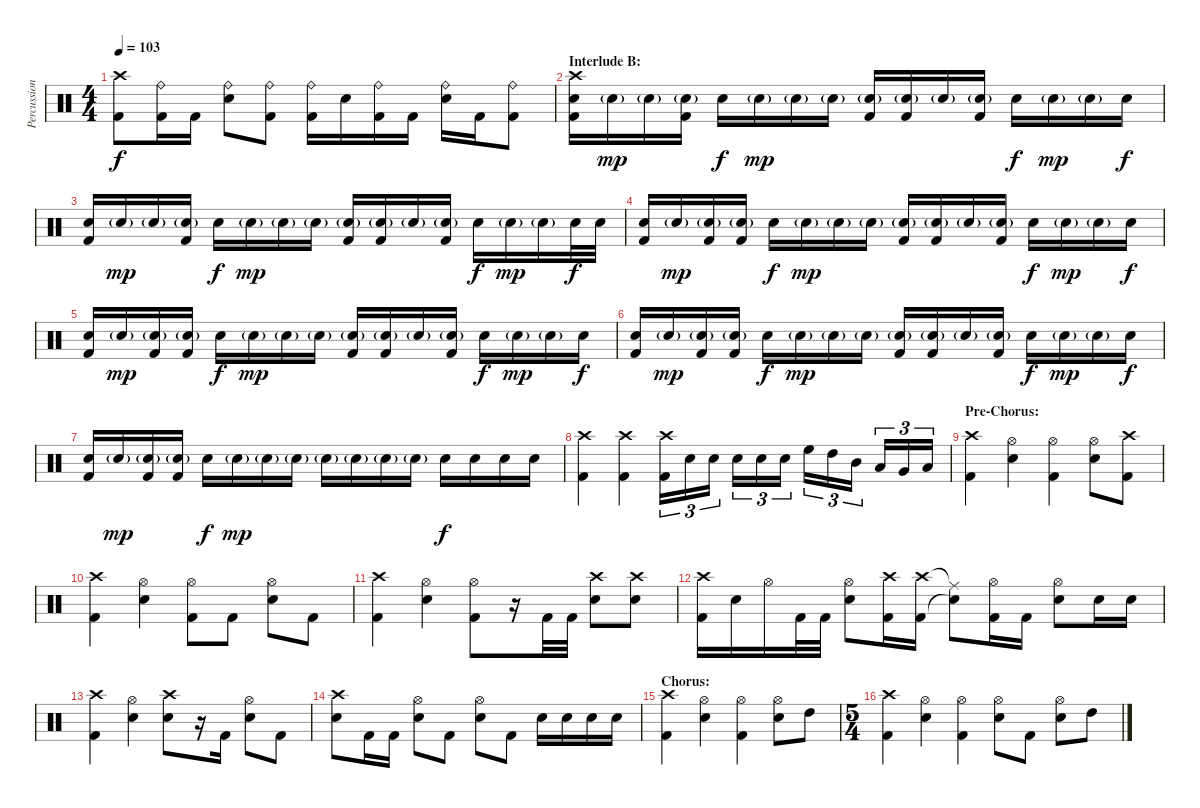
\track ("Percussion" "Percussion") {instrument percussion}
\staff {score}
\articulation defaults
\ts (4 4)
\tempo 103
\clef neutral
\ks c
("Crash high (hit)" "Kick (hit) 2").8{dy f} ("Ride (bell)" "Kick (hit) 2").16 "Kick (hit) 2".16 ("Ride (bell)" "Snare (hit) 2").8 ("Ride (bell)" "Kick (hit) 2").8 ("Ride (bell)" "Kick (hit) 2").16 "Snare (hit) 2".16 ("Ride (bell)" "Kick (hit) 2").16 "Kick (hit) 2".16 ("Ride (bell)" "Snare (hit) 2").16 "Kick (hit) 2".16 ("Ride (bell)" "Kick (hit) 2").8 |
\section ("" "Interlude B:")
("Crash high (hit)" "Snare (hit) 2" "Kick (hit) 2").16 "Snare (hit) 2"{g}.16{dy mp} "Snare (hit) 2"{g}.16 ("Snare (hit) 2"{g} "Kick (hit) 2").16 "Snare (hit) 2".16{dy f} "Snare (hit) 2"{g}.16{dy mp} "Snare (hit) 2"{g}.16 "Snare (hit) 2"{g}.16 ("Snare (hit) 2"{g} "Kick (hit) 2").16 ("Snare (hit) 2"{g} "Kick (hit) 2").16 "Snare (hit) 2"{g}.16 ("Snare (hit) 2"{g} "Kick (hit) 2").16 "Snare (hit) 2".16{dy f} "Snare (hit) 2"{g}.16{dy mp} "Snare (hit) 2"{g}.16 "Snare (hit) 2".16{dy f} |
("Snare (hit) 2" "Kick (hit) 2").16 "Snare (hit) 2"{g}.16{dy mp} "Snare (hit) 2"{g}.16 ("Snare (hit) 2"{g} "Kick (hit) 2").16 "Snare (hit) 2".16{dy f} "Snare (hit) 2"{g}.16{dy mp} "Snare (hit) 2"{g}.16 "Snare (hit) 2"{g}.16 ("Snare (hit) 2"{g} "Kick (hit) 2").16 ("Snare (hit) 2"{g} "Kick (hit) 2").16 "Snare (hit) 2"{g}.16 ("Snare (hit) 2"{g} "Kick (hit) 2").16 "Snare (hit) 2".16{dy f} "Snare (hit) 2"{g}.16{dy mp} "Snare (hit) 2"{g}.16 "Snare (hit) 2".32{dy f} "Snare (hit) 2".32 |
("Snare (hit) 2" "Kick (hit) 2").16 "Snare (hit) 2"{g}.16{dy mp} ("Snare (hit) 2"{g} "Kick (hit) 2").16 ("Snare (hit) 2"{g} "Kick (hit) 2").16 "Snare (hit) 2".16{dy f} "Snare (hit) 2"{g}.16{dy mp} "Snare (hit) 2"{g}.16 "Snare (hit) 2"{g}.16 ("Snare (hit) 2"{g} "Kick (hit) 2").16 ("Snare (hit) 2"{g} "Kick (hit) 2").16 "Snare (hit) 2"{g}.16 ("Snare (hit) 2"{g} "Kick (hit) 2").16 "Snare (hit) 2".16{dy f} "Snare (hit) 2"{g}.16{dy mp} "Snare (hit) 2"{g}.16 "Snare (hit) 2".16{dy f} |
("Snare (hit) 2" "Kick (hit) 2").16 "Snare (hit) 2"{g}.16{dy mp} ("Snare (hit) 2"{g} "Kick (hit) 2").16 ("Snare (hit) 2"{g} "Kick (hit) 2").16 "Snare (hit) 2".16{dy f} "Snare (hit) 2"{g}.16{dy mp} "Snare (hit) 2"{g}.16 "Snare (hit) 2"{g}.16 ("Snare (hit) 2"{g} "Kick (hit) 2").16 ("Snare (hit) 2"{g} "Kick (hit) 2").16 "Snare (hit) 2"{g}.16 ("Snare (hit) 2"{g} "Kick (hit) 2").16 "Snare (hit) 2".16{dy f} "Snare (hit) 2"{g}.16{dy mp} "Snare (hit) 2"{g}.16 "Snare (hit) 2".16{dy f} |
("Snare (hit) 2" "Kick (hit) 2").16 "Snare (hit) 2"{g}.16{dy mp} ("Snare (hit) 2"{g} "Kick (hit) 2").16 ("Snare (hit) 2"{g} "Kick (hit) 2").16 "Snare (hit) 2".16{dy f} "Snare (hit) 2"{g}.16{dy mp} "Snare (hit) 2"{g}.16 "Snare (hit) 2"{g}.16 ("Snare (hit) 2"{g} "Kick (hit) 2").16 ("Snare (hit) 2"{g} "Kick (hit) 2").16 "Snare (hit) 2"{g}.16 ("Snare (hit) 2"{g} "Kick (hit) 2").16 "Snare (hit) 2".16{dy f} "Snare (hit) 2"{g}.16{dy mp} "Snare (hit) 2"{g}.16 "Snare (hit) 2".16{dy f} |
("Snare (hit) 2" "Kick (hit) 2").16 "Snare (hit) 2"{g}.16{dy mp} ("Snare (hit) 2"{g} "Kick (hit) 2").16 ("Snare (hit) 2"{g} "Kick (hit) 2").16 "Snare (hit) 2".16{dy f} "Snare (hit) 2"{g}.16{dy mp} "Snare (hit) 2"{g}.16 "Snare (hit) 2"{g}.16 "Snare (hit) 2"{g}.16 "Snare (hit) 2"{g}.16 "Snare (hit) 2"{g}.16 "Snare (hit) 2"{g}.16 "Snare (hit) 2".16{dy f} "Snare (hit) 2".16 "Snare (hit) 2".16 "Snare (hit) 2".16 |
("Crash high (hit)" "Kick (hit) 2").4 ("Crash high (hit)" "Kick (hit) 2").4 ("Crash high (hit)" "Kick (hit) 2").16{tu (3 2)} "Snare (hit) 2".16{tu (3 2)} "Snare (hit) 2".16{tu (3 2)} "Snare (hit) 2".16{tu (3 2)} "Snare (hit) 2".16{tu (3 2)} "Snare (hit) 2".16{tu (3 2)} "High Floor Tom (hit)".16{tu (3 2)} "High Tom (hit)".16{tu (3 2)} "Mid Tom (hit)".16{tu (3 2)} "Low Tom (hit)".16{tu (3 2)} "Very Low Tom (hit)".16{tu (3 2)} "Low Floor Tom (hit)".16{tu (3 2)} |
\section ("" "Pre-Chorus:")
("Crash high (hit)" "Kick (hit) 2").4 ("Hi-Hat (open)" "Snare (hit) 2").4 ("Hi-Hat (open)" "Kick (hit) 2").4 ("Hi-Hat (open)" "Snare (hit) 2").8 ("Crash high (hit)" "Kick (hit) 2").8 |
("Crash high (hit)" "Kick (hit) 2").4 ("Hi-Hat (open)" "Snare (hit) 2").4 ("Hi-Hat (open)" "Kick (hit) 2").8 "Kick (hit) 2".8 ("Hi-Hat (open)" "Snare (hit) 2").8 "Kick (hit) 2".8 |
("Crash high (hit)" "Kick (hit) 2").4 ("Hi-Hat (open)" "Snare (hit) 2").4 ("Hi-Hat (open)" "Kick (hit) 2").8 r.16 "Kick (hit) 2".32 "Kick (hit) 2".32 ("Crash high (hit)" "Snare (hit) 2").8 ("Crash high (hit)" "Snare (hit) 2").8 |
("Crash high (hit)" "Kick (hit) 2").16 "Snare (hit) 2".16 "Hi-Hat (open)".16 "Kick (hit) 2".32 "Kick (hit) 2".32 ("Hi-Hat (open)" "Snare (hit) 2").8 ("Crash high (hit)" "Kick (hit) 2").16 ("Crash high (hit)" "Kick (hit) 2").16 ("Ride (middle)"{t} "Snare (hit)"{t}).8 ("Hi-Hat (open)" "Kick (hit) 2").16 "Kick (hit) 2".16 ("Hi-Hat (open)" "Snare (hit) 2").8 "Snare (hit) 2".16 "Snare (hit) 2".16 |
("Crash high (hit)" "Kick (hit) 2").4 ("Hi-Hat (open)" "Snare (hit) 2").4 ("Crash high (hit)" "Snare (hit) 2").8 r.16 "Kick (hit) 2".16 ("Hi-Hat (open)" "Snare (hit) 2").8 "Kick (hit) 2".8 |
("Crash high (hit)" "Snare (hit) 2").8 "Kick (hit) 2".16 "Kick (hit) 2".16 ("Hi-Hat (open)" "Snare (hit) 2").8 "Kick (hit) 2".8 ("Hi-Hat (open)" "Snare (hit) 2").8 "Kick (hit) 2".8 "Snare (hit) 2".16 "Snare (hit) 2".16 "Snare (hit) 2".16 "Snare (hit) 2".16 |
\section ("" "Chorus:")
("Crash high (hit)" "Kick (hit) 2").4 ("Hi-Hat (open)" "Snare (hit) 2").4 ("Hi-Hat (open)" "Kick (hit) 2").4 ("Hi-Hat (open)" "Snare (hit) 2").8 "High Tom (hit)".8 |
\ts (5 4)
("Crash high (hit)" "Kick (hit) 2").4 ("Hi-Hat (open)" "Snare (hit) 2").4 ("Hi-Hat (open)" "Kick (hit) 2").4 ("Hi-Hat (open)" "Snare (hit) 2").8 "Kick (hit) 2".8 ("Hi-Hat (open)" "Snare (hit) 2").8 "High Tom (hit)".8
